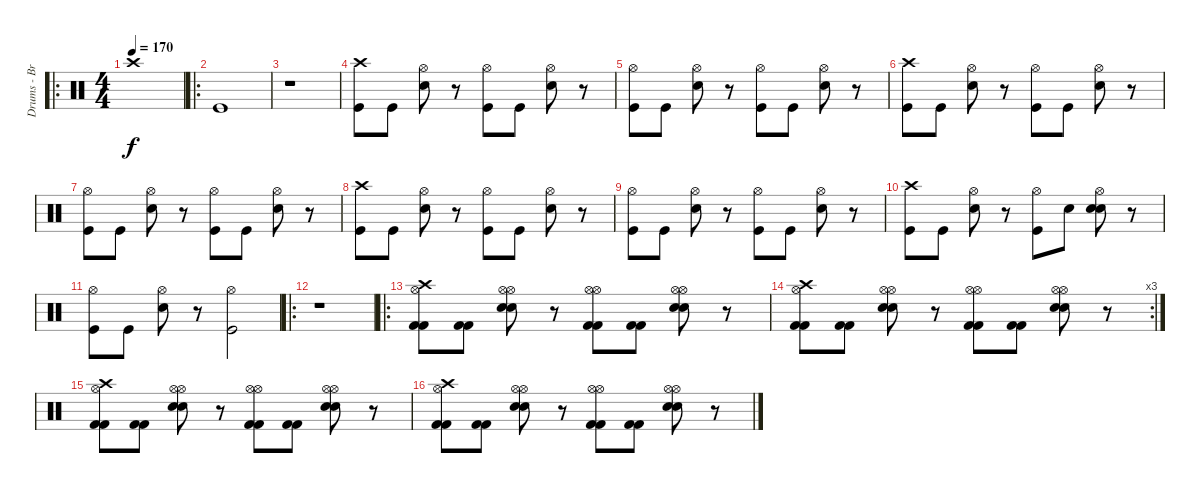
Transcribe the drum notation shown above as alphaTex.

\track ("Drums - Branden Steineckert" "Drums - Br") {instrument percussion}
\staff {score}
\articulation defaults
\ro
\ts (4 4)
\tempo 170
\clef neutral
\ks c "Crash high (hit)".1{dy f}
|
\ro "Kick (hit)".1
|
r.1 |
("Crash high (hit)" "Kick (hit)").8 "Kick (hit)".8 ("Hi-Hat (open)" "Electric Snare (hit)").8 r.8 ("Hi-Hat (open)" "Kick (hit)").8 "Kick (hit)".8 ("Hi-Hat (open)" "Electric Snare (hit)").8 r.8 |
("Hi-Hat (open)" "Kick (hit)").8 "Kick (hit)".8 ("Hi-Hat (open)" "Electric Snare (hit)").8 r.8 ("Hi-Hat (open)" "Kick (hit)").8 "Kick (hit)".8 ("Hi-Hat (open)" "Electric Snare (hit)").8 r.8 |
("Crash high (hit)" "Kick (hit)").8 "Kick (hit)".8 ("Hi-Hat (open)" "Electric Snare (hit)").8 r.8 ("Hi-Hat (open)" "Kick (hit)").8 "Kick (hit)".8 ("Hi-Hat (open)" "Electric Snare (hit)").8 r.8 |
("Hi-Hat (open)" "Kick (hit)").8 "Kick (hit)".8 ("Hi-Hat (open)" "Electric Snare (hit)").8 r.8 ("Hi-Hat (open)" "Kick (hit)").8 "Kick (hit)".8 ("Hi-Hat (open)" "Electric Snare (hit)").8 r.8 |
("Crash high (hit)" "Kick (hit)").8 "Kick (hit)".8 ("Hi-Hat (open)" "Electric Snare (hit)").8 r.8 ("Hi-Hat (open)" "Kick (hit)").8 "Kick (hit)".8 ("Hi-Hat (open)" "Electric Snare (hit)").8 r.8 |
("Hi-Hat (open)" "Kick (hit)").8 "Kick (hit)".8 ("Hi-Hat (open)" "Electric Snare (hit)").8 r.8 ("Hi-Hat (open)" "Kick (hit)").8 "Kick (hit)".8 ("Hi-Hat (open)" "Electric Snare (hit)").8 r.8 |
("Crash high (hit)" "Kick (hit)").8 "Kick (hit)".8 ("Hi-Hat (open)" "Electric Snare (hit)").8 r.8 ("Hi-Hat (open)" "Kick (hit)").8 "Snare (hit)".8 ("Hi-Hat (open)" "Electric Snare (hit)" "Snare (hit)").8 r.8 |
("Hi-Hat (open)" "Kick (hit)").8 "Kick (hit)".8 ("Hi-Hat (open)" "Electric Snare (hit)").8 r.8 ("Hi-Hat (open)" "Kick (hit)").2 |
\ro
r.1 |
\ro
("Hi-Hat (open)" "Crash high (hit)" "Kick (hit) 2" "Kick (hit) 2").8 ("Kick (hit) 2" "Kick (hit) 2").8 ("Hi-Hat (open)" "Hi-Hat (open)" "Electric Snare (hit)" "Electric Snare (hit)").8 r.8 ("Hi-Hat (open)" "Hi-Hat (open)" "Kick (hit) 2" "Kick (hit) 2").8 ("Kick (hit) 2" "Kick (hit) 2").8 ("Hi-Hat (open)" "Hi-Hat (open)" "Electric Snare (hit)" "Electric Snare (hit)").8 r.8 |
\rc 3
("Hi-Hat (open)" "Crash high (hit)" "Kick (hit) 2" "Kick (hit) 2").8 ("Kick (hit) 2" "Kick (hit) 2").8 ("Hi-Hat (open)" "Hi-Hat (open)" "Electric Snare (hit)" "Electric Snare (hit)").8 r.8 ("Hi-Hat (open)" "Hi-Hat (open)" "Kick (hit) 2" "Kick (hit) 2").8 ("Kick (hit) 2" "Kick (hit) 2").8 ("Hi-Hat (open)" "Hi-Hat (open)" "Electric Snare (hit)" "Electric Snare (hit)").8 r.8 |
("Hi-Hat (open)" "Crash high (hit)" "Kick (hit) 2" "Kick (hit) 2").8 ("Kick (hit) 2" "Kick (hit) 2").8 ("Hi-Hat (open)" "Hi-Hat (open)" "Electric Snare (hit)" "Electric Snare (hit)").8 r.8 ("Hi-Hat (open)" "Hi-Hat (open)" "Kick (hit) 2" "Kick (hit) 2").8 ("Kick (hit) 2" "Kick (hit) 2").8 ("Hi-Hat (open)" "Hi-Hat (open)" "Electric Snare (hit)" "Electric Snare (hit)").8 r.8 |
("Hi-Hat (open)" "Crash high (hit)" "Kick (hit) 2" "Kick (hit) 2").8 ("Kick (hit) 2" "Kick (hit) 2").8 ("Hi-Hat (open)" "Hi-Hat (open)" "Electric Snare (hit)" "Electric Snare (hit)").8 r.8 ("Hi-Hat (open)" "Hi-Hat (open)" "Kick (hit) 2" "Kick (hit) 2").8 ("Kick (hit) 2" "Kick (hit) 2").8 ("Hi-Hat (open)" "Hi-Hat (open)" "Electric Snare (hit)" "Electric Snare (hit)").8 r.8
